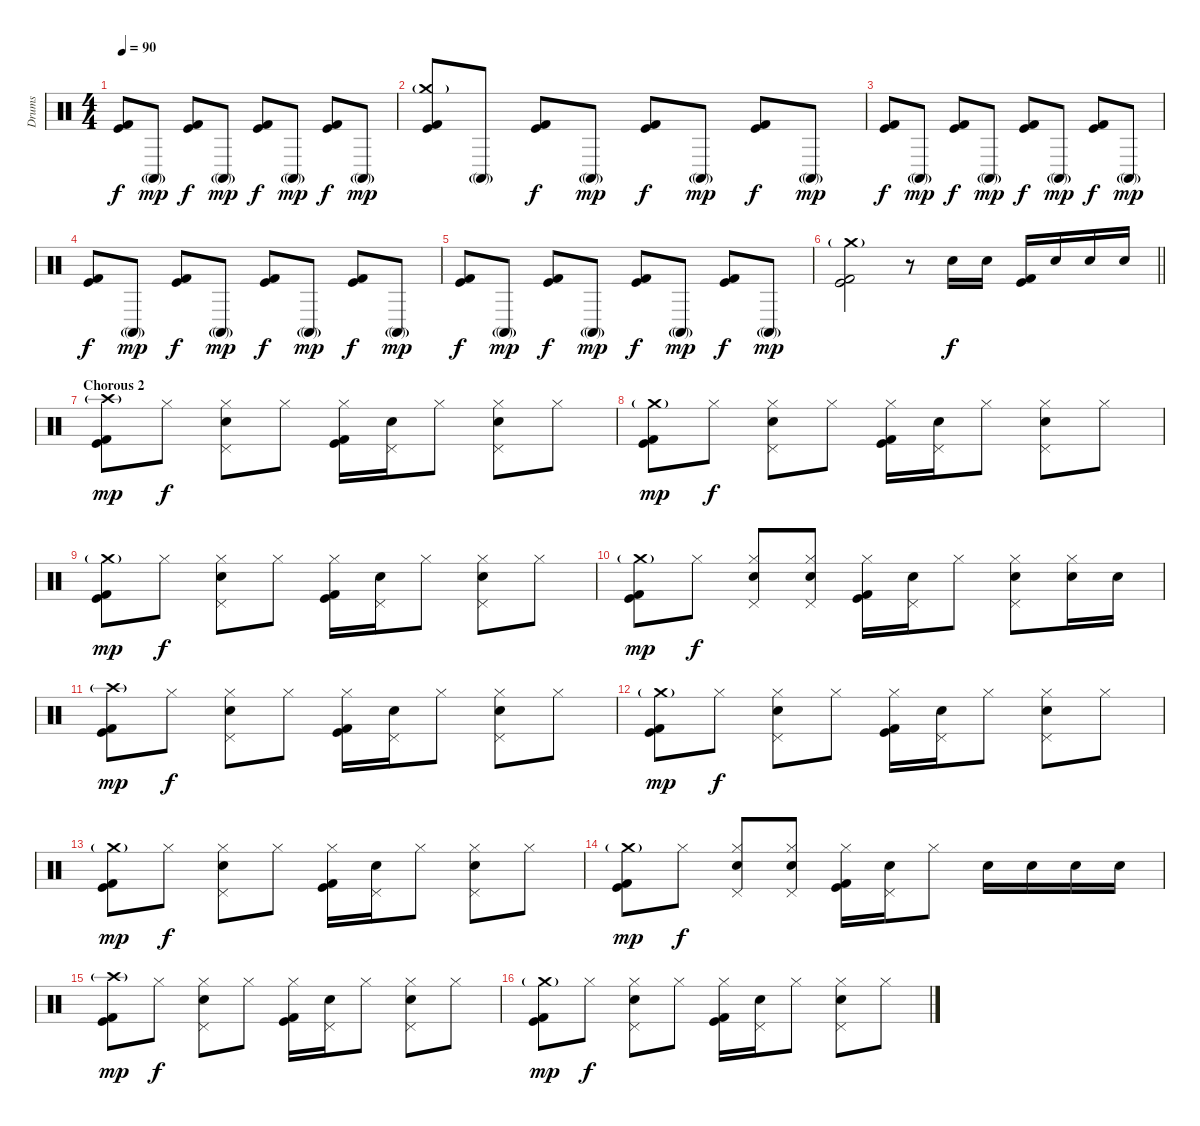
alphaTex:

\track ("Drums" "Drums") {instrument percussion}
\staff {score}
\articulation defaults
\ts (4 4)
\tempo 90
\clef neutral
\ks c
("Kick (hit)" "Kick (hit) 2").8{dy f} "Conga high (mute)"{g}.8{dy mp} ("Kick (hit)" "Kick (hit) 2").8{dy f} "Conga high (mute)"{g}.8{dy mp} ("Kick (hit)" "Kick (hit) 2").8{dy f} "Conga high (mute)"{g}.8{dy mp} ("Kick (hit)" "Kick (hit) 2").8{dy f} "Conga high (mute)"{g}.8{dy mp} |
("Crash medium (hit)"{g} "Kick (hit)" "Kick (hit) 2").8 "Conga high (mute)"{g}.8 ("Kick (hit)" "Kick (hit) 2").8{dy f} "Conga high (mute)"{g}.8{dy mp} ("Kick (hit)" "Kick (hit) 2").8{dy f} "Conga high (mute)"{g}.8{dy mp} ("Kick (hit)" "Kick (hit) 2").8{dy f} "Conga high (mute)"{g}.8{dy mp} |
("Kick (hit)" "Kick (hit) 2").8{dy f} "Conga high (mute)"{g}.8{dy mp} ("Kick (hit)" "Kick (hit) 2").8{dy f} "Conga high (mute)"{g}.8{dy mp} ("Kick (hit)" "Kick (hit) 2").8{dy f} "Conga high (mute)"{g}.8{dy mp} ("Kick (hit)" "Kick (hit) 2").8{dy f} "Conga high (mute)"{g}.8{dy mp} |
("Kick (hit)" "Kick (hit) 2").8{dy f} "Conga high (mute)"{g}.8{dy mp} ("Kick (hit)" "Kick (hit) 2").8{dy f} "Conga high (mute)"{g}.8{dy mp} ("Kick (hit)" "Kick (hit) 2").8{dy f} "Conga high (mute)"{g}.8{dy mp} ("Kick (hit)" "Kick (hit) 2").8{dy f} "Conga high (mute)"{g}.8{dy mp} |
("Kick (hit)" "Kick (hit) 2").8{dy f} "Conga high (mute)"{g}.8{dy mp} ("Kick (hit)" "Kick (hit) 2").8{dy f} "Conga high (mute)"{g}.8{dy mp} ("Kick (hit)" "Kick (hit) 2").8{dy f} "Conga high (mute)"{g}.8{dy mp} ("Kick (hit)" "Kick (hit) 2").8{dy f} "Conga high (mute)"{g}.8{dy mp} |
\barLineRight lightlight
("Crash medium (hit)"{g} "Kick (hit)" "Kick (hit) 2").2 r.8 "Electric Snare (hit)".16{dy f} "Electric Snare (hit)".16 ("Kick (hit)" "Kick (hit) 2").16 "Electric Snare (hit)".16 "Electric Snare (hit)".16 "Electric Snare (hit)".16 |
\section ("" "Chorous 2")
("Crash high (hit)"{g} "Kick (hit)" "Kick (hit) 2").8{dy mp} "Hi-Hat (closed)".8{dy f} ("Hi-Hat (closed)" "Pedal Hi-Hat (hit)" "Electric Snare (hit)").8 "Hi-Hat (closed)".8 ("Hi-Hat (closed)" "Kick (hit)" "Kick (hit) 2").16 ("Pedal Hi-Hat (hit)" "Electric Snare (hit)").16 "Hi-Hat (closed)".8 ("Hi-Hat (closed)" "Pedal Hi-Hat (hit)" "Electric Snare (hit)").8 "Hi-Hat (closed)".8 |
("Crash medium (hit)"{g} "Kick (hit)" "Kick (hit) 2").8{dy mp} "Hi-Hat (closed)".8{dy f} ("Hi-Hat (closed)" "Pedal Hi-Hat (hit)" "Electric Snare (hit)").8 "Hi-Hat (closed)".8 ("Hi-Hat (closed)" "Kick (hit)" "Kick (hit) 2").16 ("Pedal Hi-Hat (hit)" "Electric Snare (hit)").16 "Hi-Hat (closed)".8 ("Hi-Hat (closed)" "Pedal Hi-Hat (hit)" "Electric Snare (hit)").8 "Hi-Hat (closed)".8 |
("Crash medium (hit)"{g} "Kick (hit)" "Kick (hit) 2").8{dy mp} "Hi-Hat (closed)".8{dy f} ("Hi-Hat (closed)" "Pedal Hi-Hat (hit)" "Electric Snare (hit)").8 "Hi-Hat (closed)".8 ("Hi-Hat (closed)" "Kick (hit)" "Kick (hit) 2").16 ("Pedal Hi-Hat (hit)" "Electric Snare (hit)").16 "Hi-Hat (closed)".8 ("Hi-Hat (closed)" "Pedal Hi-Hat (hit)" "Electric Snare (hit)").8 "Hi-Hat (closed)".8 |
("Crash medium (hit)"{g} "Kick (hit)" "Kick (hit) 2").8{dy mp} "Hi-Hat (closed)".8{dy f} ("Hi-Hat (closed)" "Pedal Hi-Hat (hit)" "Electric Snare (hit)").8 ("Hi-Hat (closed)" "Pedal Hi-Hat (hit)" "Electric Snare (hit)").8 ("Hi-Hat (closed)" "Kick (hit)" "Kick (hit) 2").16 ("Pedal Hi-Hat (hit)" "Electric Snare (hit)").16 "Hi-Hat (closed)".8 ("Hi-Hat (closed)" "Pedal Hi-Hat (hit)" "Electric Snare (hit)").8 ("Hi-Hat (closed)" "Electric Snare (hit)").16 "Electric Snare (hit)".16 |
("Crash high (hit)"{g} "Kick (hit)" "Kick (hit) 2").8{dy mp} "Hi-Hat (closed)".8{dy f} ("Hi-Hat (closed)" "Pedal Hi-Hat (hit)" "Electric Snare (hit)").8 "Hi-Hat (closed)".8 ("Hi-Hat (closed)" "Kick (hit)" "Kick (hit) 2").16 ("Pedal Hi-Hat (hit)" "Electric Snare (hit)").16 "Hi-Hat (closed)".8 ("Hi-Hat (closed)" "Pedal Hi-Hat (hit)" "Electric Snare (hit)").8 "Hi-Hat (closed)".8 |
("Crash medium (hit)"{g} "Kick (hit)" "Kick (hit) 2").8{dy mp} "Hi-Hat (closed)".8{dy f} ("Hi-Hat (closed)" "Pedal Hi-Hat (hit)" "Electric Snare (hit)").8 "Hi-Hat (closed)".8 ("Hi-Hat (closed)" "Kick (hit)" "Kick (hit) 2").16 ("Pedal Hi-Hat (hit)" "Electric Snare (hit)").16 "Hi-Hat (closed)".8 ("Hi-Hat (closed)" "Pedal Hi-Hat (hit)" "Electric Snare (hit)").8 "Hi-Hat (closed)".8 |
("Crash medium (hit)"{g} "Kick (hit)" "Kick (hit) 2").8{dy mp} "Hi-Hat (closed)".8{dy f} ("Hi-Hat (closed)" "Pedal Hi-Hat (hit)" "Electric Snare (hit)").8 "Hi-Hat (closed)".8 ("Hi-Hat (closed)" "Kick (hit)" "Kick (hit) 2").16 ("Pedal Hi-Hat (hit)" "Electric Snare (hit)").16 "Hi-Hat (closed)".8 ("Hi-Hat (closed)" "Pedal Hi-Hat (hit)" "Electric Snare (hit)").8 "Hi-Hat (closed)".8 |
("Crash medium (hit)"{g} "Kick (hit)" "Kick (hit) 2").8{dy mp} "Hi-Hat (closed)".8{dy f} ("Hi-Hat (closed)" "Pedal Hi-Hat (hit)" "Electric Snare (hit)").8 ("Hi-Hat (closed)" "Pedal Hi-Hat (hit)" "Electric Snare (hit)").8 ("Hi-Hat (closed)" "Kick (hit)" "Kick (hit) 2").16 ("Pedal Hi-Hat (hit)" "Electric Snare (hit)").16 "Hi-Hat (closed)".8 "Electric Snare (hit)".16 "Electric Snare (hit)".16 "Electric Snare (hit)".16 "Electric Snare (hit)".16 |
("Crash high (hit)"{g} "Kick (hit)" "Kick (hit) 2").8{dy mp} "Hi-Hat (closed)".8{dy f} ("Hi-Hat (closed)" "Pedal Hi-Hat (hit)" "Electric Snare (hit)").8 "Hi-Hat (closed)".8 ("Hi-Hat (closed)" "Kick (hit)" "Kick (hit) 2").16 ("Pedal Hi-Hat (hit)" "Electric Snare (hit)").16 "Hi-Hat (closed)".8 ("Hi-Hat (closed)" "Pedal Hi-Hat (hit)" "Electric Snare (hit)").8 "Hi-Hat (closed)".8 |
("Crash medium (hit)"{g} "Kick (hit)" "Kick (hit) 2").8{dy mp} "Hi-Hat (closed)".8{dy f} ("Hi-Hat (closed)" "Pedal Hi-Hat (hit)" "Electric Snare (hit)").8 "Hi-Hat (closed)".8 ("Hi-Hat (closed)" "Kick (hit)" "Kick (hit) 2").16 ("Pedal Hi-Hat (hit)" "Electric Snare (hit)").16 "Hi-Hat (closed)".8 ("Hi-Hat (closed)" "Pedal Hi-Hat (hit)" "Electric Snare (hit)").8 "Hi-Hat (closed)".8
